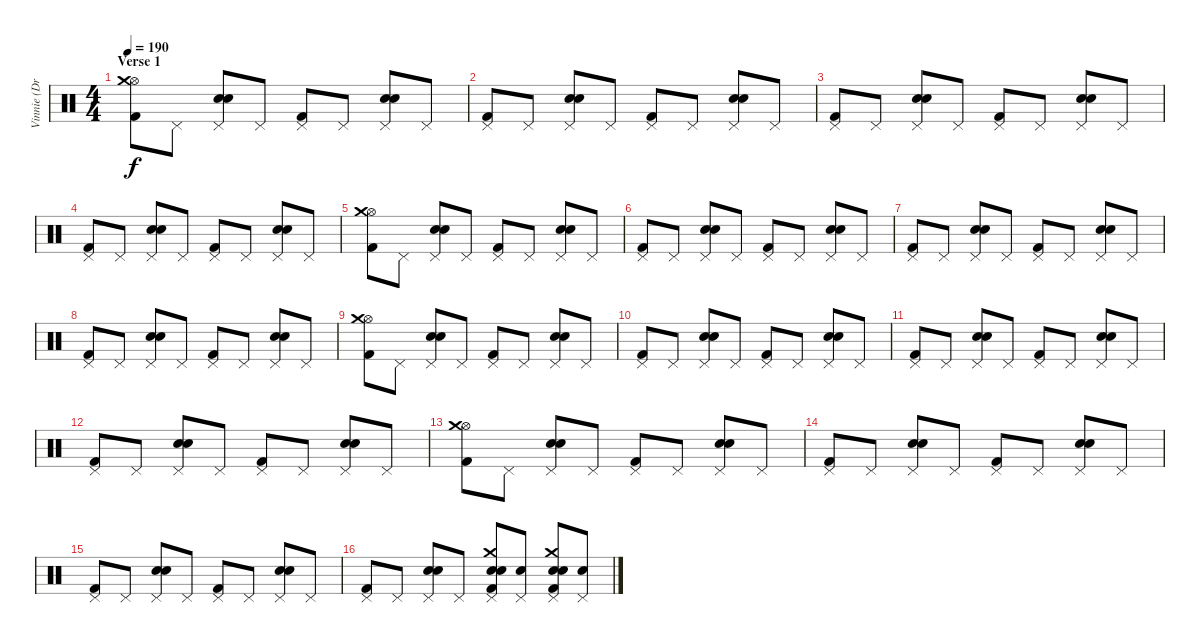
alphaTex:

\track ("Vinnie (Drums)" "Vinnie (Dr") {instrument percussion}
\staff {score}
\articulation defaults
\ts (4 4)
\section ("" "Verse 1")
\tempo 190
\clef neutral
\ks c
("Kick (hit) 2" "Hi-Hat (open)" "Crash medium (hit)").8{dy f} "Pedal Hi-Hat (hit)".8 ("Snare (hit) 2" "Electric Snare (hit)" "Pedal Hi-Hat (hit)").8 "Pedal Hi-Hat (hit)".8 ("Kick (hit) 2" "Pedal Hi-Hat (hit)").8 "Pedal Hi-Hat (hit)".8 ("Snare (hit) 2" "Electric Snare (hit)" "Pedal Hi-Hat (hit)").8 "Pedal Hi-Hat (hit)".8 |
("Kick (hit) 2" "Pedal Hi-Hat (hit)").8 "Pedal Hi-Hat (hit)".8 ("Snare (hit) 2" "Electric Snare (hit)" "Pedal Hi-Hat (hit)").8 "Pedal Hi-Hat (hit)".8 ("Kick (hit) 2" "Pedal Hi-Hat (hit)").8 "Pedal Hi-Hat (hit)".8 ("Snare (hit) 2" "Electric Snare (hit)" "Pedal Hi-Hat (hit)").8 "Pedal Hi-Hat (hit)".8 |
("Kick (hit) 2" "Pedal Hi-Hat (hit)").8 "Pedal Hi-Hat (hit)".8 ("Snare (hit) 2" "Electric Snare (hit)" "Pedal Hi-Hat (hit)").8 "Pedal Hi-Hat (hit)".8 ("Kick (hit) 2" "Pedal Hi-Hat (hit)").8 "Pedal Hi-Hat (hit)".8 ("Snare (hit) 2" "Electric Snare (hit)" "Pedal Hi-Hat (hit)").8 "Pedal Hi-Hat (hit)".8 |
("Kick (hit) 2" "Pedal Hi-Hat (hit)").8 "Pedal Hi-Hat (hit)".8 ("Snare (hit) 2" "Electric Snare (hit)" "Pedal Hi-Hat (hit)").8 "Pedal Hi-Hat (hit)".8 ("Kick (hit) 2" "Pedal Hi-Hat (hit)").8 "Pedal Hi-Hat (hit)".8 ("Snare (hit) 2" "Electric Snare (hit)" "Pedal Hi-Hat (hit)").8 "Pedal Hi-Hat (hit)".8 |
("Kick (hit) 2" "Hi-Hat (open)" "Crash medium (hit)").8 "Pedal Hi-Hat (hit)".8 ("Snare (hit) 2" "Electric Snare (hit)" "Pedal Hi-Hat (hit)").8 "Pedal Hi-Hat (hit)".8 ("Kick (hit) 2" "Pedal Hi-Hat (hit)").8 "Pedal Hi-Hat (hit)".8 ("Snare (hit) 2" "Electric Snare (hit)" "Pedal Hi-Hat (hit)").8 "Pedal Hi-Hat (hit)".8 |
("Kick (hit) 2" "Pedal Hi-Hat (hit)").8 "Pedal Hi-Hat (hit)".8 ("Snare (hit) 2" "Electric Snare (hit)" "Pedal Hi-Hat (hit)").8 "Pedal Hi-Hat (hit)".8 ("Kick (hit) 2" "Pedal Hi-Hat (hit)").8 "Pedal Hi-Hat (hit)".8 ("Snare (hit) 2" "Electric Snare (hit)" "Pedal Hi-Hat (hit)").8 "Pedal Hi-Hat (hit)".8 |
("Kick (hit) 2" "Pedal Hi-Hat (hit)").8 "Pedal Hi-Hat (hit)".8 ("Snare (hit) 2" "Electric Snare (hit)" "Pedal Hi-Hat (hit)").8 "Pedal Hi-Hat (hit)".8 ("Kick (hit) 2" "Pedal Hi-Hat (hit)").8 "Pedal Hi-Hat (hit)".8 ("Snare (hit) 2" "Electric Snare (hit)" "Pedal Hi-Hat (hit)").8 "Pedal Hi-Hat (hit)".8 |
("Kick (hit) 2" "Pedal Hi-Hat (hit)").8 "Pedal Hi-Hat (hit)".8 ("Snare (hit) 2" "Electric Snare (hit)" "Pedal Hi-Hat (hit)").8 "Pedal Hi-Hat (hit)".8 ("Kick (hit) 2" "Pedal Hi-Hat (hit)").8 "Pedal Hi-Hat (hit)".8 ("Snare (hit) 2" "Electric Snare (hit)" "Pedal Hi-Hat (hit)").8 "Pedal Hi-Hat (hit)".8 |
("Kick (hit) 2" "Hi-Hat (open)" "Crash medium (hit)").8 "Pedal Hi-Hat (hit)".8 ("Snare (hit) 2" "Electric Snare (hit)" "Pedal Hi-Hat (hit)").8 "Pedal Hi-Hat (hit)".8 ("Kick (hit) 2" "Pedal Hi-Hat (hit)").8 "Pedal Hi-Hat (hit)".8 ("Snare (hit) 2" "Electric Snare (hit)" "Pedal Hi-Hat (hit)").8 "Pedal Hi-Hat (hit)".8 |
("Kick (hit) 2" "Pedal Hi-Hat (hit)").8 "Pedal Hi-Hat (hit)".8 ("Snare (hit) 2" "Electric Snare (hit)" "Pedal Hi-Hat (hit)").8 "Pedal Hi-Hat (hit)".8 ("Kick (hit) 2" "Pedal Hi-Hat (hit)").8 "Pedal Hi-Hat (hit)".8 ("Snare (hit) 2" "Electric Snare (hit)" "Pedal Hi-Hat (hit)").8 "Pedal Hi-Hat (hit)".8 |
("Kick (hit) 2" "Pedal Hi-Hat (hit)").8 "Pedal Hi-Hat (hit)".8 ("Snare (hit) 2" "Electric Snare (hit)" "Pedal Hi-Hat (hit)").8 "Pedal Hi-Hat (hit)".8 ("Kick (hit) 2" "Pedal Hi-Hat (hit)").8 "Pedal Hi-Hat (hit)".8 ("Snare (hit) 2" "Electric Snare (hit)" "Pedal Hi-Hat (hit)").8 "Pedal Hi-Hat (hit)".8 |
("Kick (hit) 2" "Pedal Hi-Hat (hit)").8 "Pedal Hi-Hat (hit)".8 ("Snare (hit) 2" "Electric Snare (hit)" "Pedal Hi-Hat (hit)").8 "Pedal Hi-Hat (hit)".8 ("Kick (hit) 2" "Pedal Hi-Hat (hit)").8 "Pedal Hi-Hat (hit)".8 ("Snare (hit) 2" "Electric Snare (hit)" "Pedal Hi-Hat (hit)").8 "Pedal Hi-Hat (hit)".8 |
("Kick (hit) 2" "Hi-Hat (open)" "Crash medium (hit)").8 "Pedal Hi-Hat (hit)".8 ("Snare (hit) 2" "Electric Snare (hit)" "Pedal Hi-Hat (hit)").8 "Pedal Hi-Hat (hit)".8 ("Kick (hit) 2" "Pedal Hi-Hat (hit)").8 "Pedal Hi-Hat (hit)".8 ("Snare (hit) 2" "Electric Snare (hit)" "Pedal Hi-Hat (hit)").8 "Pedal Hi-Hat (hit)".8 |
("Kick (hit) 2" "Pedal Hi-Hat (hit)").8 "Pedal Hi-Hat (hit)".8 ("Snare (hit) 2" "Electric Snare (hit)" "Pedal Hi-Hat (hit)").8 "Pedal Hi-Hat (hit)".8 ("Kick (hit) 2" "Pedal Hi-Hat (hit)").8 "Pedal Hi-Hat (hit)".8 ("Snare (hit) 2" "Electric Snare (hit)" "Pedal Hi-Hat (hit)").8 "Pedal Hi-Hat (hit)".8 |
("Kick (hit) 2" "Pedal Hi-Hat (hit)").8 "Pedal Hi-Hat (hit)".8 ("Snare (hit) 2" "Electric Snare (hit)" "Pedal Hi-Hat (hit)").8 "Pedal Hi-Hat (hit)".8 ("Kick (hit) 2" "Pedal Hi-Hat (hit)").8 "Pedal Hi-Hat (hit)".8 ("Snare (hit) 2" "Electric Snare (hit)" "Pedal Hi-Hat (hit)").8 "Pedal Hi-Hat (hit)".8 |
("Kick (hit) 2" "Pedal Hi-Hat (hit)").8 "Pedal Hi-Hat (hit)".8 ("Snare (hit) 2" "Electric Snare (hit)" "Pedal Hi-Hat (hit)").8 "Pedal Hi-Hat (hit)".8 ("Kick (hit) 2" "Snare (hit) 2" "Electric Snare (hit)" "Pedal Hi-Hat (hit)" "Crash medium (hit)").8 ("Electric Snare (hit)" "Pedal Hi-Hat (hit)").8 ("Kick (hit) 2" "Snare (hit) 2" "Electric Snare (hit)" "Pedal Hi-Hat (hit)" "Crash medium (hit)").8 ("Electric Snare (hit)" "Pedal Hi-Hat (hit)").8
